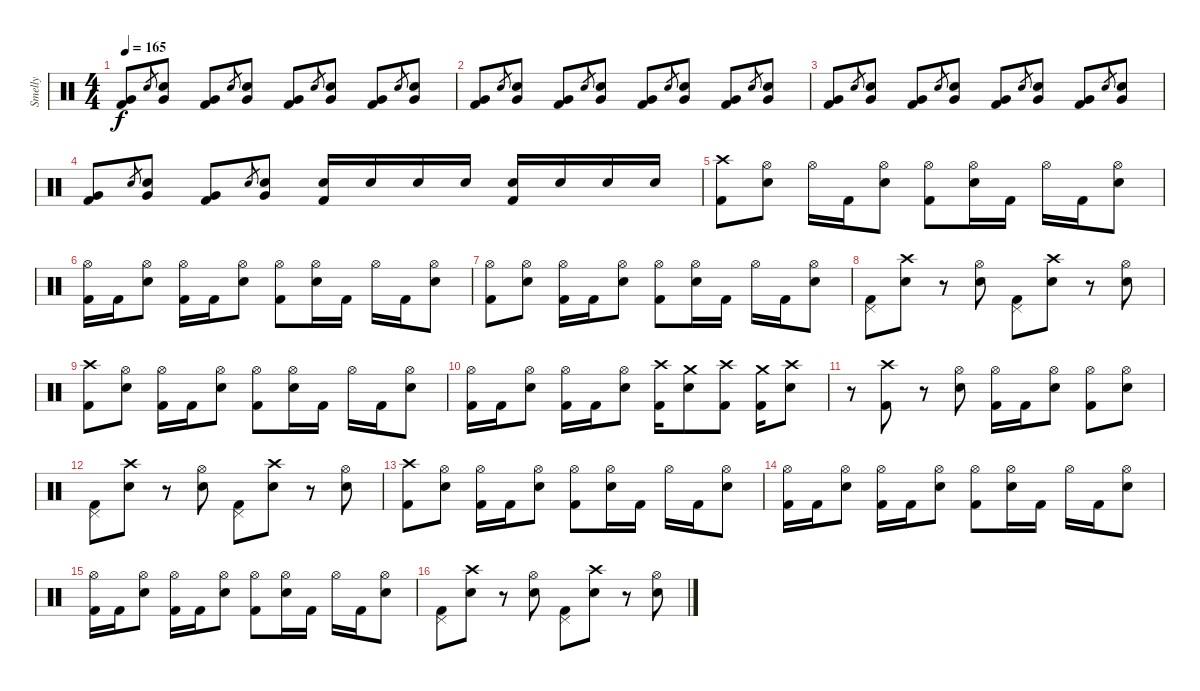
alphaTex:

\track ("Smelly" "Smelly") {instrument percussion}
\staff {score}
\articulation defaults
\ts (4 4)
\tempo 165
\clef neutral
\ks c
("Very Low Tom (hit)" "Kick (hit) 2").8{dy f} "Electric Snare (hit)".8{gr} ("Very Low Tom (hit)" "Electric Snare (hit)").8 ("Very Low Tom (hit)" "Kick (hit) 2").8 "Electric Snare (hit)".8{gr} ("Very Low Tom (hit)" "Electric Snare (hit)").8 ("Very Low Tom (hit)" "Kick (hit) 2").8 "Electric Snare (hit)".8{gr} ("Very Low Tom (hit)" "Electric Snare (hit)").8 ("Very Low Tom (hit)" "Kick (hit) 2").8 "Electric Snare (hit)".8{gr} ("Very Low Tom (hit)" "Electric Snare (hit)").8 |
("Very Low Tom (hit)" "Kick (hit) 2").8 "Electric Snare (hit)".8{gr} ("Very Low Tom (hit)" "Electric Snare (hit)").8 ("Very Low Tom (hit)" "Kick (hit) 2").8 "Electric Snare (hit)".8{gr} ("Very Low Tom (hit)" "Electric Snare (hit)").8 ("Very Low Tom (hit)" "Kick (hit) 2").8 "Electric Snare (hit)".8{gr} ("Very Low Tom (hit)" "Electric Snare (hit)").8 ("Very Low Tom (hit)" "Kick (hit) 2").8 "Electric Snare (hit)".8{gr} ("Very Low Tom (hit)" "Electric Snare (hit)").8 |
("Very Low Tom (hit)" "Kick (hit) 2").8 "Electric Snare (hit)".8{gr} ("Very Low Tom (hit)" "Electric Snare (hit)").8 ("Very Low Tom (hit)" "Kick (hit) 2").8 "Electric Snare (hit)".8{gr} ("Very Low Tom (hit)" "Electric Snare (hit)").8 ("Very Low Tom (hit)" "Kick (hit) 2").8 "Electric Snare (hit)".8{gr} ("Very Low Tom (hit)" "Electric Snare (hit)").8 ("Very Low Tom (hit)" "Kick (hit) 2").8 "Electric Snare (hit)".8{gr} ("Very Low Tom (hit)" "Electric Snare (hit)").8 |
("Very Low Tom (hit)" "Kick (hit) 2").8 "Electric Snare (hit)".8{gr} ("Very Low Tom (hit)" "Electric Snare (hit)").8 ("Very Low Tom (hit)" "Kick (hit) 2").8 "Electric Snare (hit)".8{gr} ("Very Low Tom (hit)" "Electric Snare (hit)").8 ("Electric Snare (hit)" "Kick (hit) 2").16 "Electric Snare (hit)".16 "Electric Snare (hit)".16 "Electric Snare (hit)".16 ("Electric Snare (hit)" "Kick (hit) 2").16 "Electric Snare (hit)".16 "Electric Snare (hit)".16 "Electric Snare (hit)".16 |
("Crash high (hit)" "Kick (hit) 2").8 ("Hi-Hat (open)" "Electric Snare (hit)").8 "Hi-Hat (open)".16 "Kick (hit) 2".16 ("Hi-Hat (open)" "Electric Snare (hit)").8 ("Hi-Hat (open)" "Kick (hit) 2").8 ("Hi-Hat (open)" "Electric Snare (hit)").16 "Kick (hit) 2".16 "Hi-Hat (open)".16 "Kick (hit) 2".16 ("Hi-Hat (open)" "Electric Snare (hit)").8 |
("Hi-Hat (open)" "Kick (hit) 2").16 "Kick (hit) 2".16 ("Hi-Hat (open)" "Electric Snare (hit)").8 ("Hi-Hat (open)" "Kick (hit) 2").16 "Kick (hit) 2".16 ("Hi-Hat (open)" "Electric Snare (hit)").8 ("Hi-Hat (open)" "Kick (hit) 2").8 ("Hi-Hat (open)" "Electric Snare (hit)").16 "Kick (hit) 2".16 "Hi-Hat (open)".16 "Kick (hit) 2".16 ("Hi-Hat (open)" "Electric Snare (hit)").8 |
("Hi-Hat (open)" "Kick (hit) 2").8 ("Hi-Hat (open)" "Electric Snare (hit)").8 ("Hi-Hat (open)" "Kick (hit) 2").16 "Kick (hit) 2".16 ("Hi-Hat (open)" "Electric Snare (hit)").8 ("Hi-Hat (open)" "Kick (hit) 2").8 ("Hi-Hat (open)" "Electric Snare (hit)").16 "Kick (hit) 2".16 "Hi-Hat (open)".16 "Kick (hit) 2".16 ("Hi-Hat (open)" "Electric Snare (hit)").8 |
("Pedal Hi-Hat (hit)" "Kick (hit) 2").8 ("Crash high (hit)" "Electric Snare (hit)").8 r.8 ("Hi-Hat (open)" "Electric Snare (hit)").8 ("Pedal Hi-Hat (hit)" "Kick (hit) 2").8 ("Crash high (hit)" "Electric Snare (hit)").8 r.8 ("Hi-Hat (open)" "Electric Snare (hit)").8 |
("Crash high (hit)" "Kick (hit) 2").8 ("Hi-Hat (open)" "Electric Snare (hit)").8 ("Hi-Hat (open)" "Kick (hit) 2").16 "Kick (hit) 2".16 ("Hi-Hat (open)" "Electric Snare (hit)").8 ("Hi-Hat (open)" "Kick (hit) 2").8 ("Hi-Hat (open)" "Electric Snare (hit)").16 "Kick (hit) 2".16 "Hi-Hat (open)".16 "Kick (hit) 2".16 ("Hi-Hat (open)" "Electric Snare (hit)").8 |
("Hi-Hat (open)" "Kick (hit) 2").16 "Kick (hit) 2".16 ("Hi-Hat (open)" "Electric Snare (hit)").8 ("Hi-Hat (open)" "Kick (hit) 2").16 "Kick (hit) 2".16 ("Hi-Hat (open)" "Electric Snare (hit)").8 ("Crash high (hit)" "Kick (hit) 2").16 ("Crash medium (hit)" "Electric Snare (hit)").8 ("Crash high (hit)" "Kick (hit) 2").8 ("Crash medium (hit)" "Kick (hit) 2").16 ("Crash high (hit)" "Electric Snare (hit)").8 |
r.8 ("Crash high (hit)" "Kick (hit) 2").8 r.8 ("Hi-Hat (open)" "Electric Snare (hit)").8 ("Hi-Hat (open)" "Kick (hit) 2").16 "Kick (hit) 2".16 ("Hi-Hat (open)" "Electric Snare (hit)").8 ("Hi-Hat (open)" "Kick (hit) 2").8 ("Hi-Hat (open)" "Electric Snare (hit)").8 |
("Pedal Hi-Hat (hit)" "Kick (hit) 2").8 ("Crash high (hit)" "Electric Snare (hit)").8 r.8 ("Hi-Hat (open)" "Electric Snare (hit)").8 ("Pedal Hi-Hat (hit)" "Kick (hit) 2").8 ("Crash high (hit)" "Electric Snare (hit)").8 r.8 ("Hi-Hat (open)" "Electric Snare (hit)").8 |
("Crash high (hit)" "Kick (hit) 2").8 ("Hi-Hat (open)" "Electric Snare (hit)").8 ("Hi-Hat (open)" "Kick (hit) 2").16 "Kick (hit) 2".16 ("Hi-Hat (open)" "Electric Snare (hit)").8 ("Hi-Hat (open)" "Kick (hit) 2").8 ("Hi-Hat (open)" "Electric Snare (hit)").16 "Kick (hit) 2".16 "Hi-Hat (open)".16 "Kick (hit) 2".16 ("Hi-Hat (open)" "Electric Snare (hit)").8 |
("Hi-Hat (open)" "Kick (hit) 2").16 "Kick (hit) 2".16 ("Hi-Hat (open)" "Electric Snare (hit)").8 ("Hi-Hat (open)" "Kick (hit) 2").16 "Kick (hit) 2".16 ("Hi-Hat (open)" "Electric Snare (hit)").8 ("Hi-Hat (open)" "Kick (hit) 2").8 ("Hi-Hat (open)" "Electric Snare (hit)").16 "Kick (hit) 2".16 "Hi-Hat (open)".16 "Kick (hit) 2".16 ("Hi-Hat (open)" "Electric Snare (hit)").8 |
("Hi-Hat (open)" "Kick (hit) 2").16 "Kick (hit) 2".16 ("Hi-Hat (open)" "Electric Snare (hit)").8 ("Hi-Hat (open)" "Kick (hit) 2").16 "Kick (hit) 2".16 ("Hi-Hat (open)" "Electric Snare (hit)").8 ("Hi-Hat (open)" "Kick (hit) 2").8 ("Hi-Hat (open)" "Electric Snare (hit)").16 "Kick (hit) 2".16 "Hi-Hat (open)".16 "Kick (hit) 2".16 ("Hi-Hat (open)" "Electric Snare (hit)").8 |
("Pedal Hi-Hat (hit)" "Kick (hit) 2").8 ("Crash high (hit)" "Electric Snare (hit)").8 r.8 ("Hi-Hat (open)" "Electric Snare (hit)").8 ("Pedal Hi-Hat (hit)" "Kick (hit) 2").8 ("Crash high (hit)" "Electric Snare (hit)").8 r.8 ("Hi-Hat (open)" "Electric Snare (hit)").8
